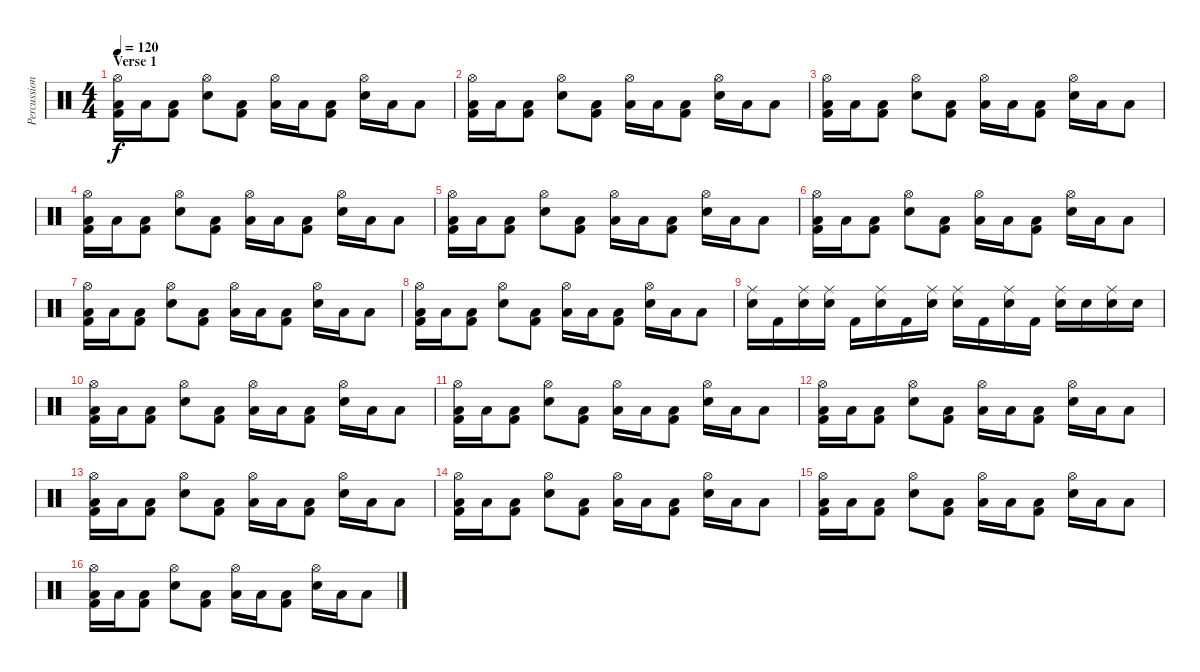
\track ("Percussion" "Percussion") {instrument percussion}
\staff {score}
\articulation defaults
\ts (4 4)
\section ("" "Verse 1")
\tempo 120
\clef neutral
\ks c
("Hi-Hat (open)" "Low Floor Tom (hit)" "Kick (hit) 2").16{dy f} "Low Floor Tom (hit)".16 ("Low Floor Tom (hit)" "Kick (hit) 2").8 ("Hi-Hat (open)" "Electric Snare (hit)").8 ("Low Floor Tom (hit)" "Kick (hit) 2").8 ("Hi-Hat (open)" "Low Floor Tom (hit)").16 "Low Floor Tom (hit)".16 ("Low Floor Tom (hit)" "Kick (hit) 2").8 ("Hi-Hat (open)" "Electric Snare (hit)").16 "Low Floor Tom (hit)".16 "Low Floor Tom (hit)".8 |
("Hi-Hat (open)" "Low Floor Tom (hit)" "Kick (hit) 2").16 "Low Floor Tom (hit)".16 ("Low Floor Tom (hit)" "Kick (hit) 2").8 ("Hi-Hat (open)" "Electric Snare (hit)").8 ("Low Floor Tom (hit)" "Kick (hit) 2").8 ("Hi-Hat (open)" "Low Floor Tom (hit)").16 "Low Floor Tom (hit)".16 ("Low Floor Tom (hit)" "Kick (hit) 2").8 ("Hi-Hat (open)" "Electric Snare (hit)").16 "Low Floor Tom (hit)".16 "Low Floor Tom (hit)".8 |
("Hi-Hat (open)" "Low Floor Tom (hit)" "Kick (hit) 2").16 "Low Floor Tom (hit)".16 ("Low Floor Tom (hit)" "Kick (hit) 2").8 ("Hi-Hat (open)" "Electric Snare (hit)").8 ("Low Floor Tom (hit)" "Kick (hit) 2").8 ("Hi-Hat (open)" "Low Floor Tom (hit)").16 "Low Floor Tom (hit)".16 ("Low Floor Tom (hit)" "Kick (hit) 2").8 ("Hi-Hat (open)" "Electric Snare (hit)").16 "Low Floor Tom (hit)".16 "Low Floor Tom (hit)".8 |
("Hi-Hat (open)" "Low Floor Tom (hit)" "Kick (hit) 2").16 "Low Floor Tom (hit)".16 ("Low Floor Tom (hit)" "Kick (hit) 2").8 ("Hi-Hat (open)" "Electric Snare (hit)").8 ("Low Floor Tom (hit)" "Kick (hit) 2").8 ("Hi-Hat (open)" "Low Floor Tom (hit)").16 "Low Floor Tom (hit)".16 ("Low Floor Tom (hit)" "Kick (hit) 2").8 ("Hi-Hat (open)" "Electric Snare (hit)").16 "Low Floor Tom (hit)".16 "Low Floor Tom (hit)".8 |
("Hi-Hat (open)" "Low Floor Tom (hit)" "Kick (hit) 2").16 "Low Floor Tom (hit)".16 ("Low Floor Tom (hit)" "Kick (hit) 2").8 ("Hi-Hat (open)" "Electric Snare (hit)").8 ("Low Floor Tom (hit)" "Kick (hit) 2").8 ("Hi-Hat (open)" "Low Floor Tom (hit)").16 "Low Floor Tom (hit)".16 ("Low Floor Tom (hit)" "Kick (hit) 2").8 ("Hi-Hat (open)" "Electric Snare (hit)").16 "Low Floor Tom (hit)".16 "Low Floor Tom (hit)".8 |
("Hi-Hat (open)" "Low Floor Tom (hit)" "Kick (hit) 2").16 "Low Floor Tom (hit)".16 ("Low Floor Tom (hit)" "Kick (hit) 2").8 ("Hi-Hat (open)" "Electric Snare (hit)").8 ("Low Floor Tom (hit)" "Kick (hit) 2").8 ("Hi-Hat (open)" "Low Floor Tom (hit)").16 "Low Floor Tom (hit)".16 ("Low Floor Tom (hit)" "Kick (hit) 2").8 ("Hi-Hat (open)" "Electric Snare (hit)").16 "Low Floor Tom (hit)".16 "Low Floor Tom (hit)".8 |
("Hi-Hat (open)" "Low Floor Tom (hit)" "Kick (hit) 2").16 "Low Floor Tom (hit)".16 ("Low Floor Tom (hit)" "Kick (hit) 2").8 ("Hi-Hat (open)" "Electric Snare (hit)").8 ("Low Floor Tom (hit)" "Kick (hit) 2").8 ("Hi-Hat (open)" "Low Floor Tom (hit)").16 "Low Floor Tom (hit)".16 ("Low Floor Tom (hit)" "Kick (hit) 2").8 ("Hi-Hat (open)" "Electric Snare (hit)").16 "Low Floor Tom (hit)".16 "Low Floor Tom (hit)".8 |
("Hi-Hat (open)" "Low Floor Tom (hit)" "Kick (hit) 2").16 "Low Floor Tom (hit)".16 ("Low Floor Tom (hit)" "Kick (hit) 2").8 ("Hi-Hat (open)" "Electric Snare (hit)").8 ("Low Floor Tom (hit)" "Kick (hit) 2").8 ("Hi-Hat (open)" "Low Floor Tom (hit)").16 "Low Floor Tom (hit)".16 ("Low Floor Tom (hit)" "Kick (hit) 2").8 ("Hi-Hat (open)" "Electric Snare (hit)").16 "Low Floor Tom (hit)".16 "Low Floor Tom (hit)".8 |
("Ride (middle)" "Electric Snare (hit)").16 "Kick (hit) 2".16 ("Ride (middle)" "Electric Snare (hit)").16 ("Ride (middle)" "Electric Snare (hit)").16 "Kick (hit) 2".16 ("Ride (middle)" "Electric Snare (hit)").16 "Kick (hit) 2".16 ("Ride (middle)" "Electric Snare (hit)").16 ("Ride (middle)" "Electric Snare (hit)").16 "Kick (hit) 2".16 ("Ride (middle)" "Electric Snare (hit)").16 "Kick (hit) 2".16 ("Ride (middle)" "Electric Snare (hit)").16 "Electric Snare (hit)".16 ("Ride (middle)" "Electric Snare (hit)").16 "Electric Snare (hit)".16 |
("Hi-Hat (open)" "Low Floor Tom (hit)" "Kick (hit) 2").16 "Low Floor Tom (hit)".16 ("Low Floor Tom (hit)" "Kick (hit) 2").8 ("Hi-Hat (open)" "Electric Snare (hit)").8 ("Low Floor Tom (hit)" "Kick (hit) 2").8 ("Hi-Hat (open)" "Low Floor Tom (hit)").16 "Low Floor Tom (hit)".16 ("Low Floor Tom (hit)" "Kick (hit) 2").8 ("Hi-Hat (open)" "Electric Snare (hit)").16 "Low Floor Tom (hit)".16 "Low Floor Tom (hit)".8 |
("Hi-Hat (open)" "Low Floor Tom (hit)" "Kick (hit) 2").16 "Low Floor Tom (hit)".16 ("Low Floor Tom (hit)" "Kick (hit) 2").8 ("Hi-Hat (open)" "Electric Snare (hit)").8 ("Low Floor Tom (hit)" "Kick (hit) 2").8 ("Hi-Hat (open)" "Low Floor Tom (hit)").16 "Low Floor Tom (hit)".16 ("Low Floor Tom (hit)" "Kick (hit) 2").8 ("Hi-Hat (open)" "Electric Snare (hit)").16 "Low Floor Tom (hit)".16 "Low Floor Tom (hit)".8 |
("Hi-Hat (open)" "Low Floor Tom (hit)" "Kick (hit) 2").16 "Low Floor Tom (hit)".16 ("Low Floor Tom (hit)" "Kick (hit) 2").8 ("Hi-Hat (open)" "Electric Snare (hit)").8 ("Low Floor Tom (hit)" "Kick (hit) 2").8 ("Hi-Hat (open)" "Low Floor Tom (hit)").16 "Low Floor Tom (hit)".16 ("Low Floor Tom (hit)" "Kick (hit) 2").8 ("Hi-Hat (open)" "Electric Snare (hit)").16 "Low Floor Tom (hit)".16 "Low Floor Tom (hit)".8 |
("Hi-Hat (open)" "Low Floor Tom (hit)" "Kick (hit) 2").16 "Low Floor Tom (hit)".16 ("Low Floor Tom (hit)" "Kick (hit) 2").8 ("Hi-Hat (open)" "Electric Snare (hit)").8 ("Low Floor Tom (hit)" "Kick (hit) 2").8 ("Hi-Hat (open)" "Low Floor Tom (hit)").16 "Low Floor Tom (hit)".16 ("Low Floor Tom (hit)" "Kick (hit) 2").8 ("Hi-Hat (open)" "Electric Snare (hit)").16 "Low Floor Tom (hit)".16 "Low Floor Tom (hit)".8 |
("Hi-Hat (open)" "Low Floor Tom (hit)" "Kick (hit) 2").16 "Low Floor Tom (hit)".16 ("Low Floor Tom (hit)" "Kick (hit) 2").8 ("Hi-Hat (open)" "Electric Snare (hit)").8 ("Low Floor Tom (hit)" "Kick (hit) 2").8 ("Hi-Hat (open)" "Low Floor Tom (hit)").16 "Low Floor Tom (hit)".16 ("Low Floor Tom (hit)" "Kick (hit) 2").8 ("Hi-Hat (open)" "Electric Snare (hit)").16 "Low Floor Tom (hit)".16 "Low Floor Tom (hit)".8 |
("Hi-Hat (open)" "Low Floor Tom (hit)" "Kick (hit) 2").16 "Low Floor Tom (hit)".16 ("Low Floor Tom (hit)" "Kick (hit) 2").8 ("Hi-Hat (open)" "Electric Snare (hit)").8 ("Low Floor Tom (hit)" "Kick (hit) 2").8 ("Hi-Hat (open)" "Low Floor Tom (hit)").16 "Low Floor Tom (hit)".16 ("Low Floor Tom (hit)" "Kick (hit) 2").8 ("Hi-Hat (open)" "Electric Snare (hit)").16 "Low Floor Tom (hit)".16 "Low Floor Tom (hit)".8 |
("Hi-Hat (open)" "Low Floor Tom (hit)" "Kick (hit) 2").16 "Low Floor Tom (hit)".16 ("Low Floor Tom (hit)" "Kick (hit) 2").8 ("Hi-Hat (open)" "Electric Snare (hit)").8 ("Low Floor Tom (hit)" "Kick (hit) 2").8 ("Hi-Hat (open)" "Low Floor Tom (hit)").16 "Low Floor Tom (hit)".16 ("Low Floor Tom (hit)" "Kick (hit) 2").8 ("Hi-Hat (open)" "Electric Snare (hit)").16 "Low Floor Tom (hit)".16 "Low Floor Tom (hit)".8
